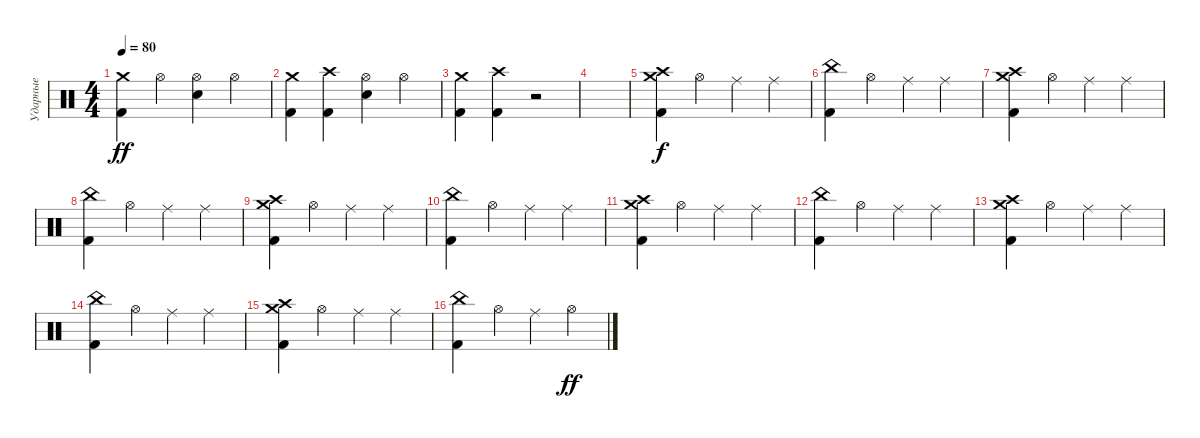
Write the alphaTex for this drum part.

\track ("Ударные" "Ударные") {instrument percussion}
\staff {score}
\articulation defaults
\ts (4 4)
\tempo 80
\clef neutral
\ks c
("Crash medium (hit)" "Kick (hit) 2").4{dy ff} "Hi-Hat (open)".4 ("Hi-Hat (open)" "Electric Snare (hit)").4 "Hi-Hat (open)".4 |
("Crash medium (hit)" "Kick (hit) 2").4 ("Crash high (hit)" "Kick (hit) 2").4 ("Hi-Hat (open)" "Electric Snare (hit)").4 "Hi-Hat (open)".4 |
("Crash medium (hit)" "Kick (hit) 2").4 ("Crash high (hit)" "Kick (hit) 2").4 r.2 |
|
("Crash medium (hit)" "Crash high (hit)" "Kick (hit) 2").4{dy f} "Hi-Hat (open)".4 "Ride (middle)".4 "Ride (middle)".4 |
("China (hit)" "Kick (hit) 2").4 "Hi-Hat (open)".4 "Ride (middle)".4 "Ride (middle)".4 |
("Crash medium (hit)" "Crash high (hit)" "Kick (hit) 2").4 "Hi-Hat (open)".4 "Ride (middle)".4 "Ride (middle)".4 |
("China (hit)" "Kick (hit) 2").4 "Hi-Hat (open)".4 "Ride (middle)".4 "Ride (middle)".4 |
("Crash medium (hit)" "Crash high (hit)" "Kick (hit) 2").4 "Hi-Hat (open)".4 "Ride (middle)".4 "Ride (middle)".4 |
("China (hit)" "Kick (hit) 2").4 "Hi-Hat (open)".4 "Ride (middle)".4 "Ride (middle)".4 |
("Crash medium (hit)" "Crash high (hit)" "Kick (hit) 2").4 "Hi-Hat (open)".4 "Ride (middle)".4 "Ride (middle)".4 |
("China (hit)" "Kick (hit) 2").4 "Hi-Hat (open)".4 "Ride (middle)".4 "Ride (middle)".4 |
("Crash medium (hit)" "Crash high (hit)" "Kick (hit) 2").4 "Hi-Hat (open)".4 "Ride (middle)".4 "Ride (middle)".4 |
("China (hit)" "Kick (hit) 2").4 "Hi-Hat (open)".4 "Ride (middle)".4 "Ride (middle)".4 |
("Crash medium (hit)" "Crash high (hit)" "Kick (hit) 2").4 "Hi-Hat (open)".4 "Ride (middle)".4 "Ride (middle)".4 |
("China (hit)" "Kick (hit) 2").4 "Hi-Hat (open)".4 "Ride (middle)".4 "Hi-Hat (open)".4{dy ff}
